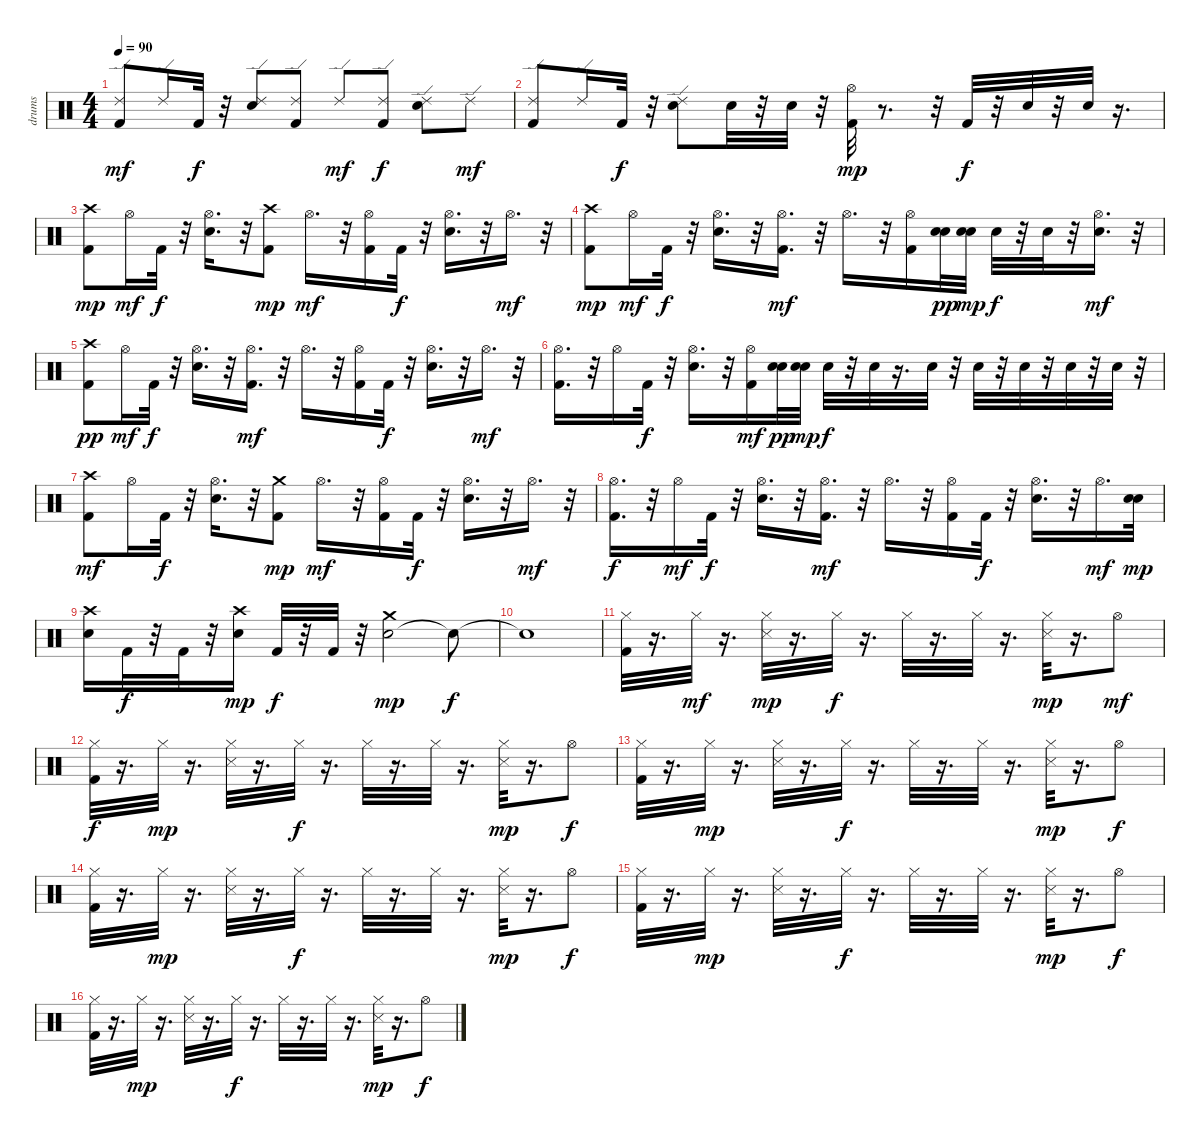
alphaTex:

\track ("drums" "drums") {instrument percussion}
\staff {score}
\articulation defaults
\ts (4 4)
\tempo 90
\clef neutral
\ks c
("Kick (hit) 2" "Ride (edge) 2").8{dy mf} "Ride (edge) 2".16 "Kick (hit) 2".32{dy f} r.32 ("Snare (hit) 2" "Ride (edge) 2").8 ("Kick (hit) 2" "Ride (edge) 2").8 "Ride (edge) 2".8{dy mf} ("Kick (hit) 2" "Ride (edge) 2").8{dy f} ("Snare (hit) 2" "Ride (edge) 2").8 "Ride (edge) 2".8{dy mf} |
("Kick (hit) 2" "Ride (edge) 2").8 "Ride (edge) 2".16 "Kick (hit) 2".32{dy f} r.32 ("Snare (hit) 2" "Ride (edge) 2").8 "Snare (hit) 2".32 r.32 "Snare (hit) 2".32 r.32 ("Kick (hit) 2" "Hi-Hat (open)").32{dy mp} r.8{d} r.32 "Kick (hit) 2".32{dy f} r.32 "Snare (hit) 2".32 r.32 "Snare (hit) 2".32 r.16{d} |
("Kick (hit) 2" "Crash high (hit)").8{dy mp} "Hi-Hat (open)".16{dy mf} "Kick (hit) 2".32{dy f} r.32 ("Snare (hit) 2" "Hi-Hat (open)").16{d} r.32 ("Kick (hit) 2" "Crash high (hit)").8{dy mp} "Hi-Hat (open)".16{d dy mf} r.32 ("Kick (hit) 2" "Hi-Hat (open)").16 "Kick (hit) 2".32{dy f} r.32 ("Snare (hit) 2" "Hi-Hat (open)").16{d} r.32 "Hi-Hat (open)".16{d dy mf} r.32 |
("Kick (hit) 2" "Crash high (hit)").8{dy mp} "Hi-Hat (open)".16{dy mf} "Kick (hit) 2".32{dy f} r.32 ("Snare (hit) 2" "Hi-Hat (open)").16{d} r.32 ("Kick (hit) 2" "Hi-Hat (open)").16{d dy mf} r.32 "Hi-Hat (open)".16{d} r.32 ("Kick (hit) 2" "Hi-Hat (open)").16 ("Snare (hit) 2" "Snare (hit) 2").32{dy pp} ("Snare (hit) 2" "Snare (hit) 2").32{dy mp} "Snare (hit) 2".32{dy f} r.32 "Snare (hit) 2".32 r.32 ("Snare (hit) 2" "Hi-Hat (open)").16{d dy mf} r.32 |
("Kick (hit) 2" "Crash high (hit)").8{dy pp} "Hi-Hat (open)".16{dy mf} "Kick (hit) 2".32{dy f} r.32 ("Snare (hit) 2" "Hi-Hat (open)").16{d} r.32 ("Kick (hit) 2" "Hi-Hat (open)").16{d dy mf} r.32 "Hi-Hat (open)".16{d} r.32 ("Kick (hit) 2" "Hi-Hat (open)").16 "Kick (hit) 2".32{dy f} r.32 ("Snare (hit) 2" "Hi-Hat (open)").16{d} r.32 "Hi-Hat (open)".16{d dy mf} r.32 |
("Kick (hit) 2" "Hi-Hat (open)").16{d} r.32 "Hi-Hat (open)".16 "Kick (hit) 2".32{dy f} r.32 ("Snare (hit) 2" "Hi-Hat (open)").16{d} r.32 ("Kick (hit) 2" "Hi-Hat (open)").16{dy mf} ("Snare (hit) 2" "Snare (hit) 2").32{dy pp} ("Snare (hit) 2" "Snare (hit) 2").32{dy mp} "Snare (hit) 2".32{dy f} r.32 "Snare (hit) 2".32 r.16{d} "Snare (hit) 2".32 r.32 "Snare (hit) 2".32 r.32 "Snare (hit) 2".32 r.32 "Snare (hit) 2".32 r.32 "Snare (hit) 2".32 r.32 |
("Kick (hit) 2" "Crash high (hit)").8{dy mf} "Hi-Hat (open)".16 "Kick (hit) 2".32{dy f} r.32 ("Snare (hit) 2" "Hi-Hat (open)").16{d} r.32 ("Kick (hit) 2" "Crash medium (hit)").8{dy mp} "Hi-Hat (open)".16{d dy mf} r.32 ("Kick (hit) 2" "Hi-Hat (open)").16 "Kick (hit) 2".32{dy f} r.32 ("Snare (hit) 2" "Hi-Hat (open)").16{d} r.32 "Hi-Hat (open)".16{d dy mf} r.32 |
("Kick (hit) 2" "Hi-Hat (open)").16{d dy f} r.32 "Hi-Hat (open)".16{dy mf} "Kick (hit) 2".32{dy f} r.32 ("Snare (hit) 2" "Hi-Hat (open)").16{d} r.32 ("Kick (hit) 2" "Hi-Hat (open)").16{d dy mf} r.32 "Hi-Hat (open)".16{d} r.32 ("Kick (hit) 2" "Hi-Hat (open)").16 "Kick (hit) 2".32{dy f} r.32 ("Snare (hit) 2" "Hi-Hat (open)").16{d} r.32 "Hi-Hat (open)".16{d dy mf} ("Snare (hit) 2" "Snare (hit) 2").32{dy mp} |
("Snare (hit) 2" "Crash high (hit)").16 "Kick (hit) 2".32{dy f} r.32 "Kick (hit) 2".32 r.32 ("Snare (hit) 2" "Crash high (hit)").16{dy mp} "Kick (hit) 2".32{dy f} r.32 "Kick (hit) 2".32 r.32 ("Snare (hit) 2" "Crash medium (hit)").2{dy mp} "Snare (hit)"{t}.8{dy f} |
"Snare (hit)"{t}.1 |
("Kick (hit) 2" "Hi-Hat (closed)").32 r.16{d} "Hi-Hat (closed)".32{dy mf} r.16{d} ("Snare (side stick) 3" "Hi-Hat (closed)").32{dy mp} r.16{d} "Hi-Hat (closed)".32{dy f} r.16{d} "Hi-Hat (closed)".32 r.16{d} "Hi-Hat (closed)".32 r.16{d} ("Snare (side stick) 3" "Hi-Hat (closed)").32{dy mp} r.16{d} "Hi-Hat (open)".8{dy mf} |
("Kick (hit) 2" "Hi-Hat (closed)").32{dy f} r.16{d} "Hi-Hat (closed)".32{dy mp} r.16{d} ("Snare (side stick) 3" "Hi-Hat (closed)").32 r.16{d} "Hi-Hat (closed)".32{dy f} r.16{d} "Hi-Hat (closed)".32 r.16{d} "Hi-Hat (closed)".32 r.16{d} ("Snare (side stick) 3" "Hi-Hat (closed)").32{dy mp} r.16{d} "Hi-Hat (open)".8{dy f} |
("Kick (hit) 2" "Hi-Hat (closed)").32 r.16{d} "Hi-Hat (closed)".32{dy mp} r.16{d} ("Snare (side stick) 3" "Hi-Hat (closed)").32 r.16{d} "Hi-Hat (closed)".32{dy f} r.16{d} "Hi-Hat (closed)".32 r.16{d} "Hi-Hat (closed)".32 r.16{d} ("Snare (side stick) 3" "Hi-Hat (closed)").32{dy mp} r.16{d} "Hi-Hat (open)".8{dy f} |
("Kick (hit) 2" "Hi-Hat (closed)").32 r.16{d} "Hi-Hat (closed)".32{dy mp} r.16{d} ("Snare (side stick) 3" "Hi-Hat (closed)").32 r.16{d} "Hi-Hat (closed)".32{dy f} r.16{d} "Hi-Hat (closed)".32 r.16{d} "Hi-Hat (closed)".32 r.16{d} ("Snare (side stick) 3" "Hi-Hat (closed)").32{dy mp} r.16{d} "Hi-Hat (open)".8{dy f} |
("Kick (hit) 2" "Hi-Hat (closed)").32 r.16{d} "Hi-Hat (closed)".32{dy mp} r.16{d} ("Snare (side stick) 3" "Hi-Hat (closed)").32 r.16{d} "Hi-Hat (closed)".32{dy f} r.16{d} "Hi-Hat (closed)".32 r.16{d} "Hi-Hat (closed)".32 r.16{d} ("Snare (side stick) 3" "Hi-Hat (closed)").32{dy mp} r.16{d} "Hi-Hat (open)".8{dy f} |
("Kick (hit) 2" "Hi-Hat (closed)").32 r.16{d} "Hi-Hat (closed)".32{dy mp} r.16{d} ("Snare (side stick) 3" "Hi-Hat (closed)").32 r.16{d} "Hi-Hat (closed)".32{dy f} r.16{d} "Hi-Hat (closed)".32 r.16{d} "Hi-Hat (closed)".32 r.16{d} ("Snare (side stick) 3" "Hi-Hat (closed)").32{dy mp} r.16{d} "Hi-Hat (open)".8{dy f}
